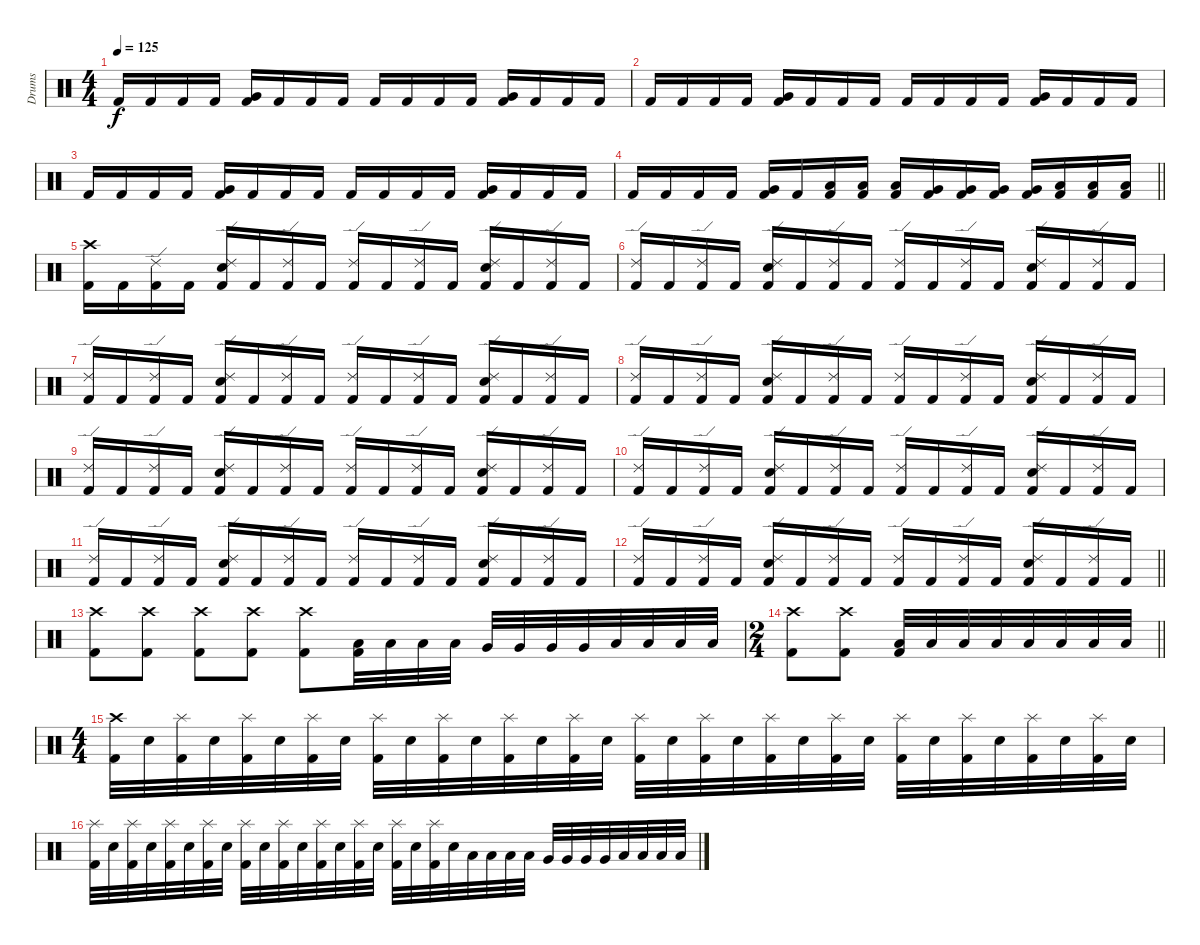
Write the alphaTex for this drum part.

\track ("Drums" "Drums") {instrument percussion}
\staff {score}
\articulation defaults
\ts (4 4)
\tempo 125
\clef neutral
\ks c "Kick (hit) 2".16{dy f} "Kick (hit) 2".16 "Kick (hit) 2".16 "Kick (hit) 2".16
("Very Low Tom (hit)" "Kick (hit) 2").16 "Kick (hit) 2".16 "Kick (hit) 2".16 "Kick (hit) 2".16 "Kick (hit) 2".16 "Kick (hit) 2".16 "Kick (hit) 2".16 "Kick (hit) 2".16 ("Very Low Tom (hit)" "Kick (hit) 2").16 "Kick (hit) 2".16 "Kick (hit) 2".16 "Kick (hit) 2".16 |
"Kick (hit) 2".16 "Kick (hit) 2".16 "Kick (hit) 2".16 "Kick (hit) 2".16 ("Very Low Tom (hit)" "Kick (hit) 2").16 "Kick (hit) 2".16 "Kick (hit) 2".16 "Kick (hit) 2".16 "Kick (hit) 2".16 "Kick (hit) 2".16 "Kick (hit) 2".16 "Kick (hit) 2".16 ("Very Low Tom (hit)" "Kick (hit) 2").16 "Kick (hit) 2".16 "Kick (hit) 2".16 "Kick (hit) 2".16 |
"Kick (hit) 2".16 "Kick (hit) 2".16 "Kick (hit) 2".16 "Kick (hit) 2".16 ("Very Low Tom (hit)" "Kick (hit) 2").16 "Kick (hit) 2".16 "Kick (hit) 2".16 "Kick (hit) 2".16 "Kick (hit) 2".16 "Kick (hit) 2".16 "Kick (hit) 2".16 "Kick (hit) 2".16 ("Very Low Tom (hit)" "Kick (hit) 2").16 "Kick (hit) 2".16 "Kick (hit) 2".16 "Kick (hit) 2".16 |
\barLineRight lightlight "Kick (hit) 2".16 "Kick (hit) 2".16 "Kick (hit) 2".16 "Kick (hit) 2".16
("Very Low Tom (hit)" "Kick (hit) 2").16 "Kick (hit) 2".16 ("Low Tom (hit)" "Kick (hit) 2").16 ("Low Tom (hit)" "Kick (hit) 2").16 ("Low Tom (hit)" "Kick (hit) 2").16 ("Very Low Tom (hit)" "Kick (hit) 2").16 ("Very Low Tom (hit)" "Kick (hit) 2").16 ("Very Low Tom (hit)" "Kick (hit) 2").16 ("Very Low Tom (hit)" "Kick (hit) 2").16 ("Low Floor Tom (hit)" "Kick (hit) 2").16 ("Low Floor Tom (hit)" "Kick (hit) 2").16 ("Low Floor Tom (hit)" "Kick (hit) 2").16 |
("Crash high (hit)" "Kick (hit) 2").16 "Kick (hit) 2".16 ("Ride (edge) 2" "Kick (hit) 2").16 "Kick (hit) 2".16 ("Ride (edge) 2" "Electric Snare (hit)" "Kick (hit) 2").16 "Kick (hit) 2".16 ("Ride (edge) 2" "Kick (hit) 2").16 "Kick (hit) 2".16 ("Ride (edge) 2" "Kick (hit) 2").16 "Kick (hit) 2".16 ("Ride (edge) 2" "Kick (hit) 2").16 "Kick (hit) 2".16 ("Ride (edge) 2" "Electric Snare (hit)" "Kick (hit) 2").16 "Kick (hit) 2".16 ("Ride (edge) 2" "Kick (hit) 2").16 "Kick (hit) 2".16 |
("Ride (edge) 2" "Kick (hit) 2").16 "Kick (hit) 2".16 ("Ride (edge) 2" "Kick (hit) 2").16 "Kick (hit) 2".16 ("Ride (edge) 2" "Electric Snare (hit)" "Kick (hit) 2").16 "Kick (hit) 2".16 ("Ride (edge) 2" "Kick (hit) 2").16 "Kick (hit) 2".16 ("Ride (edge) 2" "Kick (hit) 2").16 "Kick (hit) 2".16 ("Ride (edge) 2" "Kick (hit) 2").16 "Kick (hit) 2".16 ("Ride (edge) 2" "Electric Snare (hit)" "Kick (hit) 2").16 "Kick (hit) 2".16 ("Ride (edge) 2" "Kick (hit) 2").16 "Kick (hit) 2".16 |
("Ride (edge) 2" "Kick (hit) 2").16 "Kick (hit) 2".16 ("Ride (edge) 2" "Kick (hit) 2").16 "Kick (hit) 2".16 ("Ride (edge) 2" "Electric Snare (hit)" "Kick (hit) 2").16 "Kick (hit) 2".16 ("Ride (edge) 2" "Kick (hit) 2").16 "Kick (hit) 2".16 ("Ride (edge) 2" "Kick (hit) 2").16 "Kick (hit) 2".16 ("Ride (edge) 2" "Kick (hit) 2").16 "Kick (hit) 2".16 ("Ride (edge) 2" "Electric Snare (hit)" "Kick (hit) 2").16 "Kick (hit) 2".16 ("Ride (edge) 2" "Kick (hit) 2").16 "Kick (hit) 2".16 |
("Ride (edge) 2" "Kick (hit) 2").16 "Kick (hit) 2".16 ("Ride (edge) 2" "Kick (hit) 2").16 "Kick (hit) 2".16 ("Ride (edge) 2" "Electric Snare (hit)" "Kick (hit) 2").16 "Kick (hit) 2".16 ("Ride (edge) 2" "Kick (hit) 2").16 "Kick (hit) 2".16 ("Ride (edge) 2" "Kick (hit) 2").16 "Kick (hit) 2".16 ("Ride (edge) 2" "Kick (hit) 2").16 "Kick (hit) 2".16 ("Ride (edge) 2" "Electric Snare (hit)" "Kick (hit) 2").16 "Kick (hit) 2".16 ("Ride (edge) 2" "Kick (hit) 2").16 "Kick (hit) 2".16 |
("Ride (edge) 2" "Kick (hit) 2").16 "Kick (hit) 2".16 ("Ride (edge) 2" "Kick (hit) 2").16 "Kick (hit) 2".16 ("Ride (edge) 2" "Electric Snare (hit)" "Kick (hit) 2").16 "Kick (hit) 2".16 ("Ride (edge) 2" "Kick (hit) 2").16 "Kick (hit) 2".16 ("Ride (edge) 2" "Kick (hit) 2").16 "Kick (hit) 2".16 ("Ride (edge) 2" "Kick (hit) 2").16 "Kick (hit) 2".16 ("Ride (edge) 2" "Electric Snare (hit)" "Kick (hit) 2").16 "Kick (hit) 2".16 ("Ride (edge) 2" "Kick (hit) 2").16 "Kick (hit) 2".16 |
("Ride (edge) 2" "Kick (hit) 2").16 "Kick (hit) 2".16 ("Ride (edge) 2" "Kick (hit) 2").16 "Kick (hit) 2".16 ("Ride (edge) 2" "Electric Snare (hit)" "Kick (hit) 2").16 "Kick (hit) 2".16 ("Ride (edge) 2" "Kick (hit) 2").16 "Kick (hit) 2".16 ("Ride (edge) 2" "Kick (hit) 2").16 "Kick (hit) 2".16 ("Ride (edge) 2" "Kick (hit) 2").16 "Kick (hit) 2".16 ("Ride (edge) 2" "Electric Snare (hit)" "Kick (hit) 2").16 "Kick (hit) 2".16 ("Ride (edge) 2" "Kick (hit) 2").16 "Kick (hit) 2".16 |
("Ride (edge) 2" "Kick (hit) 2").16 "Kick (hit) 2".16 ("Ride (edge) 2" "Kick (hit) 2").16 "Kick (hit) 2".16 ("Ride (edge) 2" "Electric Snare (hit)" "Kick (hit) 2").16 "Kick (hit) 2".16 ("Ride (edge) 2" "Kick (hit) 2").16 "Kick (hit) 2".16 ("Ride (edge) 2" "Kick (hit) 2").16 "Kick (hit) 2".16 ("Ride (edge) 2" "Kick (hit) 2").16 "Kick (hit) 2".16 ("Ride (edge) 2" "Electric Snare (hit)" "Kick (hit) 2").16 "Kick (hit) 2".16 ("Ride (edge) 2" "Kick (hit) 2").16 "Kick (hit) 2".16 |
\barLineRight lightlight
("Ride (edge) 2" "Kick (hit) 2").16 "Kick (hit) 2".16 ("Ride (edge) 2" "Kick (hit) 2").16 "Kick (hit) 2".16 ("Ride (edge) 2" "Electric Snare (hit)" "Kick (hit) 2").16 "Kick (hit) 2".16 ("Ride (edge) 2" "Kick (hit) 2").16 "Kick (hit) 2".16 ("Ride (edge) 2" "Kick (hit) 2").16 "Kick (hit) 2".16 ("Ride (edge) 2" "Kick (hit) 2").16 "Kick (hit) 2".16 ("Ride (edge) 2" "Electric Snare (hit)" "Kick (hit) 2").16 "Kick (hit) 2".16 ("Ride (edge) 2" "Kick (hit) 2").16 "Kick (hit) 2".16 |
("Crash high (hit)" "Kick (hit) 2").8 ("Crash high (hit)" "Kick (hit) 2").8 ("Crash high (hit)" "Kick (hit) 2").8 ("Crash high (hit)" "Kick (hit) 2").8 ("Crash high (hit)" "Kick (hit) 2").8 ("Low Tom (hit)" "Kick (hit) 2").32 "Low Tom (hit)".32 "Low Tom (hit)".32 "Low Tom (hit)".32 "Very Low Tom (hit)".32 "Very Low Tom (hit)".32 "Very Low Tom (hit)".32 "Very Low Tom (hit)".32 "Low Floor Tom (hit)".32 "Low Floor Tom (hit)".32 "Low Floor Tom (hit)".32 "Low Floor Tom (hit)".32 |
\ts (2 4)
\barLineRight lightlight
("Crash high (hit)" "Kick (hit) 2").8 ("Crash high (hit)" "Kick (hit) 2").8 ("Low Tom (hit)" "Kick (hit) 2").32 "Low Tom (hit)".32 "Low Tom (hit)".32 "Low Tom (hit)".32 "Low Floor Tom (hit)".32 "Low Floor Tom (hit)".32 "Low Floor Tom (hit)".32 "Low Floor Tom (hit)".32 |
\ts (4 4)
("Crash high (hit)" "Kick (hit) 2").32 "Electric Snare (hit)".32 ("Splash (hit)" "Kick (hit) 2").32 "Electric Snare (hit)".32 ("Splash (hit)" "Kick (hit) 2").32 "Electric Snare (hit)".32 ("Splash (hit)" "Kick (hit) 2").32 "Electric Snare (hit)".32 ("Splash (hit)" "Kick (hit) 2").32 "Electric Snare (hit)".32 ("Splash (hit)" "Kick (hit) 2").32 "Electric Snare (hit)".32 ("Splash (hit)" "Kick (hit) 2").32 "Electric Snare (hit)".32 ("Splash (hit)" "Kick (hit) 2").32 "Electric Snare (hit)".32 ("Splash (hit)" "Kick (hit) 2").32 "Electric Snare (hit)".32 ("Splash (hit)" "Kick (hit) 2").32 "Electric Snare (hit)".32 ("Splash (hit)" "Kick (hit) 2").32 "Electric Snare (hit)".32 ("Splash (hit)" "Kick (hit) 2").32 "Electric Snare (hit)".32 ("Splash (hit)" "Kick (hit) 2").32 "Electric Snare (hit)".32 ("Splash (hit)" "Kick (hit) 2").32 "Electric Snare (hit)".32 ("Splash (hit)" "Kick (hit) 2").32 "Electric Snare (hit)".32 ("Splash (hit)" "Kick (hit) 2").32 "Electric Snare (hit)".32 |
("Splash (hit)" "Kick (hit) 2").32 "Electric Snare (hit)".32 ("Splash (hit)" "Kick (hit) 2").32 "Electric Snare (hit)".32 ("Splash (hit)" "Kick (hit) 2").32 "Electric Snare (hit)".32 ("Splash (hit)" "Kick (hit) 2").32 "Electric Snare (hit)".32 ("Splash (hit)" "Kick (hit) 2").32 "Electric Snare (hit)".32 ("Splash (hit)" "Kick (hit) 2").32 "Electric Snare (hit)".32 ("Splash (hit)" "Kick (hit) 2").32 "Electric Snare (hit)".32 ("Splash (hit)" "Kick (hit) 2").32 "Electric Snare (hit)".32 ("Splash (hit)" "Kick (hit) 2").32 "Electric Snare (hit)".32 ("Splash (hit)" "Kick (hit) 2").32 "Electric Snare (hit)".32 "Low Tom (hit)".32 "Low Tom (hit)".32 "Low Tom (hit)".32 "Low Tom (hit)".32 "Very Low Tom (hit)".32 "Very Low Tom (hit)".32 "Very Low Tom (hit)".32 "Very Low Tom (hit)".32 "Low Floor Tom (hit)".32 "Low Floor Tom (hit)".32 "Low Floor Tom (hit)".32 "Low Floor Tom (hit)".32
